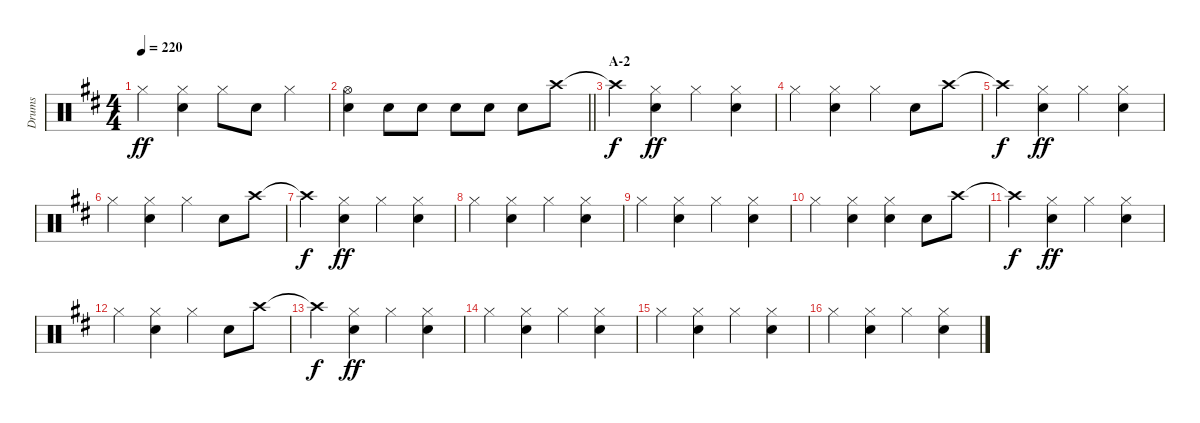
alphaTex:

\track ("Drums" "Drums") {instrument percussion}
\staff {score}
\articulation defaults
\ts (4 4)
\tempo 220
\clef neutral
\ks d "Hi-Hat (closed)".4{dy ff}
("Hi-Hat (closed)" "Snare (hit) 2").4 "Hi-Hat (closed)".8 "Snare (hit) 2".8 "Hi-Hat (closed)".4 |
\barLineRight lightlight
("Hi-Hat (open)" "Snare (hit) 2").4 "Snare (hit) 2".8 "Snare (hit) 2".8 "Snare (hit) 2".8 "Snare (hit) 2".8 "Snare (hit) 2".8 "Crash high (hit)".8 |
\section ("" "A-2")
"Crash high (hit)"{t}.4{dy f} ("Hi-Hat (closed)" "Snare (hit) 2").4{dy ff} "Hi-Hat (closed)".4 ("Hi-Hat (closed)" "Snare (hit) 2").4 |
"Hi-Hat (closed)".4 ("Hi-Hat (closed)" "Snare (hit) 2").4 "Hi-Hat (closed)".4 "Snare (hit) 2".8 "Crash high (hit)".8 |
"Crash high (hit)"{t}.4{dy f} ("Hi-Hat (closed)" "Snare (hit) 2").4{dy ff} "Hi-Hat (closed)".4 ("Hi-Hat (closed)" "Snare (hit) 2").4 |
"Hi-Hat (closed)".4 ("Hi-Hat (closed)" "Snare (hit) 2").4 "Hi-Hat (closed)".4 "Snare (hit) 2".8 "Crash high (hit)".8 |
"Crash high (hit)"{t}.4{dy f} ("Hi-Hat (closed)" "Snare (hit) 2").4{dy ff} "Hi-Hat (closed)".4 ("Hi-Hat (closed)" "Snare (hit) 2").4 |
"Hi-Hat (closed)".4 ("Hi-Hat (closed)" "Snare (hit) 2").4 "Hi-Hat (closed)".4 ("Hi-Hat (closed)" "Snare (hit) 2").4 |
"Hi-Hat (closed)".4 ("Hi-Hat (closed)" "Snare (hit) 2").4 "Hi-Hat (closed)".4 ("Hi-Hat (closed)" "Snare (hit) 2").4 |
"Hi-Hat (closed)".4 ("Hi-Hat (closed)" "Snare (hit) 2").4 ("Hi-Hat (closed)" "Snare (hit) 2").4 "Snare (hit) 2".8 "Crash high (hit)".8 |
"Crash high (hit)"{t}.4{dy f} ("Hi-Hat (closed)" "Snare (hit) 2").4{dy ff} "Hi-Hat (closed)".4 ("Hi-Hat (closed)" "Snare (hit) 2").4 |
"Hi-Hat (closed)".4 ("Hi-Hat (closed)" "Snare (hit) 2").4 "Hi-Hat (closed)".4 "Snare (hit) 2".8 "Crash high (hit)".8 |
"Crash high (hit)"{t}.4{dy f} ("Hi-Hat (closed)" "Snare (hit) 2").4{dy ff} "Hi-Hat (closed)".4 ("Hi-Hat (closed)" "Snare (hit) 2").4 |
"Hi-Hat (closed)".4 ("Hi-Hat (closed)" "Snare (hit) 2").4 "Hi-Hat (closed)".4 ("Hi-Hat (closed)" "Snare (hit) 2").4 |
"Hi-Hat (closed)".4 ("Hi-Hat (closed)" "Snare (hit) 2").4 "Hi-Hat (closed)".4 ("Hi-Hat (closed)" "Snare (hit) 2").4 |
"Hi-Hat (closed)".4 ("Hi-Hat (closed)" "Snare (hit) 2").4 "Hi-Hat (closed)".4 ("Hi-Hat (closed)" "Snare (hit) 2").4
